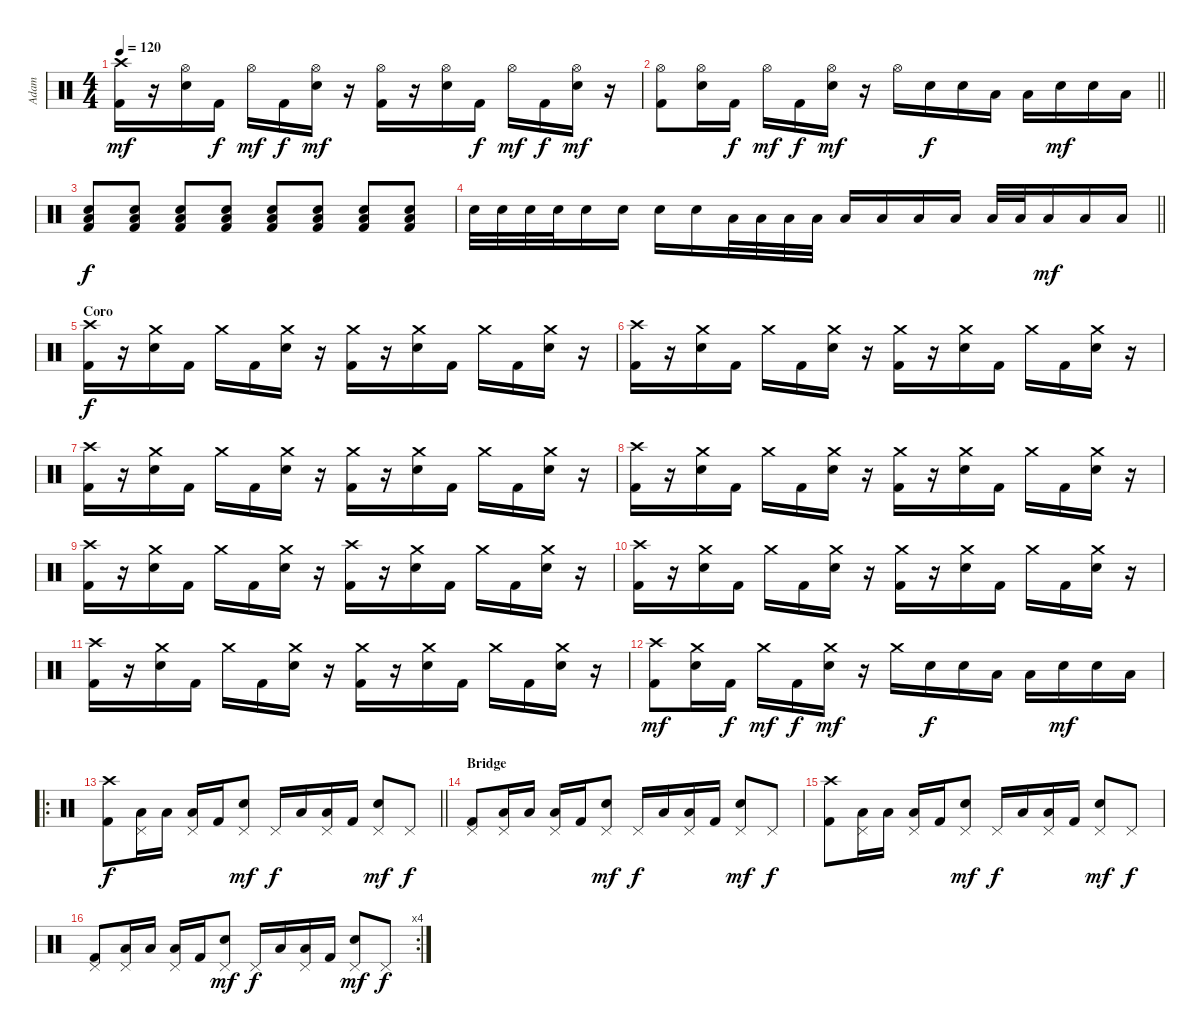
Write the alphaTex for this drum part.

\track ("Adam" "Adam") {instrument percussion}
\staff {score}
\articulation defaults
\ts (4 4)
\tempo 120
\clef neutral
\ks c
("Crash high (hit)" "Kick (hit) 2").16{dy mf} r.16 ("Hi-Hat (open)" "Snare (hit) 2").16 "Kick (hit) 2".16{dy f} "Hi-Hat (open)".16{dy mf} "Kick (hit) 2".16{dy f} ("Hi-Hat (open)" "Snare (hit) 2").16{dy mf} r.16 ("Hi-Hat (open)" "Kick (hit) 2").16 r.16 ("Hi-Hat (open)" "Snare (hit) 2").16 "Kick (hit) 2".16{dy f} "Hi-Hat (open)".16{dy mf} "Kick (hit) 2".16{dy f} ("Hi-Hat (open)" "Snare (hit) 2").16{dy mf} r.16 |
\barLineRight lightlight
("Hi-Hat (open)" "Kick (hit) 2").8 ("Hi-Hat (open)" "Snare (hit) 2").16 "Kick (hit) 2".16{dy f} "Hi-Hat (open)".16{dy mf} "Kick (hit) 2".16{dy f} ("Hi-Hat (open)" "Snare (hit) 2").16{dy mf} r.16 "Hi-Hat (open)".16 "Snare (hit) 2".16{dy f} "Snare (hit) 2".16 "Low Floor Tom (hit)".16 "Low Floor Tom (hit)".16 "Snare (hit) 2".16{dy mf} "Snare (hit) 2".16 "Low Floor Tom (hit)".16 |
("Low Floor Tom (hit)" "Snare (hit) 2" "Kick (hit) 2").8{dy f} ("Low Floor Tom (hit)" "Snare (hit) 2" "Kick (hit) 2").8 ("Low Floor Tom (hit)" "Snare (hit) 2" "Kick (hit) 2").8 ("Low Floor Tom (hit)" "Snare (hit) 2" "Kick (hit) 2").8 ("Low Floor Tom (hit)" "Snare (hit) 2" "Kick (hit) 2").8 ("Low Floor Tom (hit)" "Snare (hit) 2" "Kick (hit) 2").8 ("Low Floor Tom (hit)" "Snare (hit) 2" "Kick (hit) 2").8 ("Low Floor Tom (hit)" "Snare (hit) 2" "Kick (hit) 2").8 |
\barLineRight lightlight "Snare (hit) 2".32 "Snare (hit) 2".32 "Snare (hit) 2".32 "Snare (hit) 2".32 "Snare (hit) 2".16 "Snare (hit) 2".16 "Snare (hit) 2".16 "Snare (hit) 2".16 "Low Tom (hit)".32 "Low Tom (hit)".32 "Low Tom (hit)".32 "Low Tom (hit)".32 "Low Tom (hit)".16 "Low Tom (hit)".16 "Low Tom (hit)".16 "Low Tom (hit)".16 "Low Floor Tom (hit)".32 "Low Floor Tom (hit)".32 "Low Floor Tom (hit)".16{dy mf} "Low Floor Tom (hit)".16 "Low Floor Tom (hit)".16
|
\section ("" "Coro")
("Crash high (hit)" "Kick (hit) 2").16{dy f} r.16 ("Crash medium (hit)" "Snare (hit) 2").16 "Kick (hit) 2".16 "Crash medium (hit)".16 "Kick (hit) 2".16 ("Crash medium (hit)" "Snare (hit) 2").16 r.16 ("Crash medium (hit)" "Kick (hit) 2").16 r.16 ("Crash medium (hit)" "Snare (hit) 2").16 "Kick (hit) 2".16 "Crash medium (hit)".16 "Kick (hit) 2".16 ("Crash medium (hit)" "Snare (hit) 2").16 r.16 |
("Crash high (hit)" "Kick (hit) 2").16 r.16 ("Crash medium (hit)" "Snare (hit) 2").16 "Kick (hit) 2".16 "Crash medium (hit)".16 "Kick (hit) 2".16 ("Crash medium (hit)" "Snare (hit) 2").16 r.16 ("Crash medium (hit)" "Kick (hit) 2").16 r.16 ("Crash medium (hit)" "Snare (hit) 2").16 "Kick (hit) 2".16 "Crash medium (hit)".16 "Kick (hit) 2".16 ("Crash medium (hit)" "Snare (hit) 2").16 r.16 |
("Crash high (hit)" "Kick (hit) 2").16 r.16 ("Crash medium (hit)" "Snare (hit) 2").16 "Kick (hit) 2".16 "Crash medium (hit)".16 "Kick (hit) 2".16 ("Crash medium (hit)" "Snare (hit) 2").16 r.16 ("Crash medium (hit)" "Kick (hit) 2").16 r.16 ("Crash medium (hit)" "Snare (hit) 2").16 "Kick (hit) 2".16 "Crash medium (hit)".16 "Kick (hit) 2".16 ("Crash medium (hit)" "Snare (hit) 2").16 r.16 |
("Crash high (hit)" "Kick (hit) 2").16 r.16 ("Crash medium (hit)" "Snare (hit) 2").16 "Kick (hit) 2".16 "Crash medium (hit)".16 "Kick (hit) 2".16 ("Crash medium (hit)" "Snare (hit) 2").16 r.16 ("Crash medium (hit)" "Kick (hit) 2").16 r.16 ("Crash medium (hit)" "Snare (hit) 2").16 "Kick (hit) 2".16 "Crash medium (hit)".16 "Kick (hit) 2".16 ("Crash medium (hit)" "Snare (hit) 2").16 r.16 |
("Crash high (hit)" "Kick (hit) 2").16 r.16 ("Crash medium (hit)" "Snare (hit) 2").16 "Kick (hit) 2".16 "Crash medium (hit)".16 "Kick (hit) 2".16 ("Crash medium (hit)" "Snare (hit) 2").16 r.16 ("Crash high (hit)" "Kick (hit) 2").16 r.16 ("Crash medium (hit)" "Snare (hit) 2").16 "Kick (hit) 2".16 "Crash medium (hit)".16 "Kick (hit) 2".16 ("Crash medium (hit)" "Snare (hit) 2").16 r.16 |
("Crash high (hit)" "Kick (hit) 2").16 r.16 ("Crash medium (hit)" "Snare (hit) 2").16 "Kick (hit) 2".16 "Crash medium (hit)".16 "Kick (hit) 2".16 ("Crash medium (hit)" "Snare (hit) 2").16 r.16 ("Crash medium (hit)" "Kick (hit) 2").16 r.16 ("Crash medium (hit)" "Snare (hit) 2").16 "Kick (hit) 2".16 "Crash medium (hit)".16 "Kick (hit) 2".16 ("Crash medium (hit)" "Snare (hit) 2").16 r.16 |
("Crash high (hit)" "Kick (hit) 2").16 r.16 ("Crash medium (hit)" "Snare (hit) 2").16 "Kick (hit) 2".16 "Crash medium (hit)".16 "Kick (hit) 2".16 ("Crash medium (hit)" "Snare (hit) 2").16 r.16 ("Crash medium (hit)" "Kick (hit) 2").16 r.16 ("Crash medium (hit)" "Snare (hit) 2").16 "Kick (hit) 2".16 "Crash medium (hit)".16 "Kick (hit) 2".16 ("Crash medium (hit)" "Snare (hit) 2").16 r.16 |
("Crash high (hit)" "Kick (hit) 2").8{dy mf} ("Crash medium (hit)" "Snare (hit) 2").16 "Kick (hit) 2".16{dy f} "Crash medium (hit)".16{dy mf} "Kick (hit) 2".16{dy f} ("Crash medium (hit)" "Snare (hit) 2").16{dy mf} r.16 "Crash medium (hit)".16 "Snare (hit) 2".16{dy f} "Snare (hit) 2".16 "Low Floor Tom (hit)".16 "Low Floor Tom (hit)".16 "Snare (hit) 2".16{dy mf} "Snare (hit) 2".16 "Low Floor Tom (hit)".16 |
\ro
\barLineRight lightlight
("Crash high (hit)" "Kick (hit) 2").8{dy f} ("Pedal Hi-Hat (hit)" "Low Floor Tom (hit)").16 "Low Floor Tom (hit)".16 ("Pedal Hi-Hat (hit)" "Low Tom (hit)").16 "Kick (hit) 2".16 ("Pedal Hi-Hat (hit)" "Snare (hit) 2").8{dy mf} "Pedal Hi-Hat (hit)".16{dy f} "Low Floor Tom (hit)".16 ("Pedal Hi-Hat (hit)" "Low Tom (hit)").16 "Kick (hit) 2".16 ("Pedal Hi-Hat (hit)" "Snare (hit) 2").8{dy mf} "Pedal Hi-Hat (hit)".8{dy f} |
\section ("" "Bridge")
("Pedal Hi-Hat (hit)" "Kick (hit) 2").8 ("Pedal Hi-Hat (hit)" "Low Floor Tom (hit)").16 "Low Floor Tom (hit)".16 ("Pedal Hi-Hat (hit)" "Low Tom (hit)").16 "Kick (hit) 2".16 ("Pedal Hi-Hat (hit)" "Snare (hit) 2").8{dy mf} "Pedal Hi-Hat (hit)".16{dy f} "Low Floor Tom (hit)".16 ("Pedal Hi-Hat (hit)" "Low Tom (hit)").16 "Kick (hit) 2".16 ("Pedal Hi-Hat (hit)" "Snare (hit) 2").8{dy mf} "Pedal Hi-Hat (hit)".8{dy f} |
("Crash high (hit)" "Kick (hit) 2").8 ("Pedal Hi-Hat (hit)" "Low Floor Tom (hit)").16 "Low Floor Tom (hit)".16 ("Pedal Hi-Hat (hit)" "Low Tom (hit)").16 "Kick (hit) 2".16 ("Pedal Hi-Hat (hit)" "Snare (hit) 2").8{dy mf} "Pedal Hi-Hat (hit)".16{dy f} "Low Floor Tom (hit)".16 ("Pedal Hi-Hat (hit)" "Low Tom (hit)").16 "Kick (hit) 2".16 ("Pedal Hi-Hat (hit)" "Snare (hit) 2").8{dy mf} "Pedal Hi-Hat (hit)".8{dy f} |
\rc 4
("Pedal Hi-Hat (hit)" "Kick (hit) 2").8 ("Pedal Hi-Hat (hit)" "Low Floor Tom (hit)").16 "Low Floor Tom (hit)".16 ("Pedal Hi-Hat (hit)" "Low Tom (hit)").16 "Kick (hit) 2".16 ("Pedal Hi-Hat (hit)" "Snare (hit) 2").8{dy mf} "Pedal Hi-Hat (hit)".16{dy f} "Low Floor Tom (hit)".16 ("Pedal Hi-Hat (hit)" "Low Tom (hit)").16 "Kick (hit) 2".16 ("Pedal Hi-Hat (hit)" "Snare (hit) 2").8{dy mf} "Pedal Hi-Hat (hit)".8{dy f}
